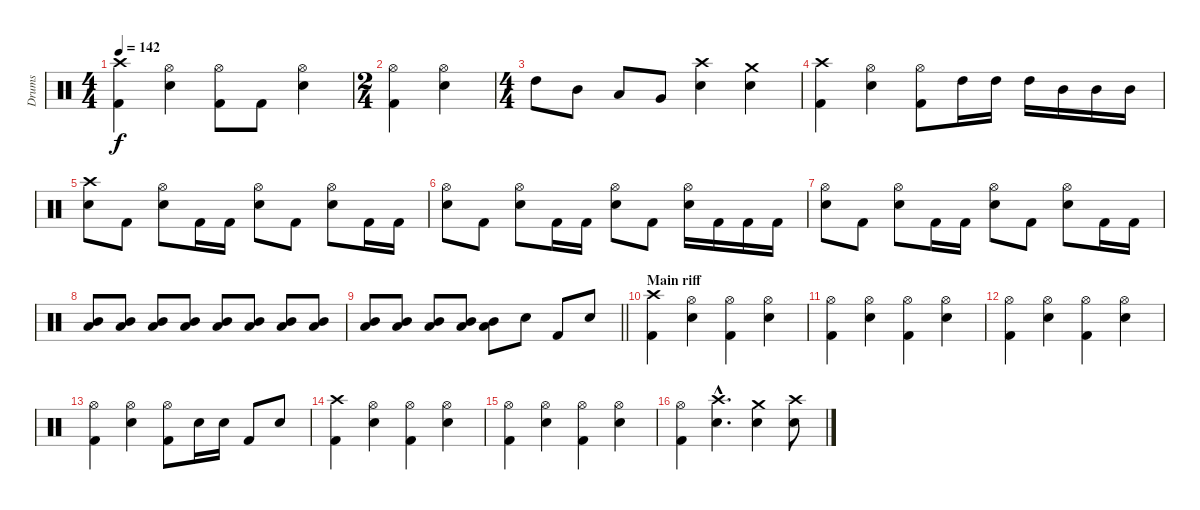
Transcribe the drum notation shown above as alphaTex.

\track ("Drums" "Drums") {instrument percussion}
\staff {score}
\articulation defaults
\ts (4 4)
\tempo 142
\clef neutral
\ks c
("Kick (hit) 2" "Crash high (hit)").4{dy f} ("Snare (hit) 2" "Hi-Hat (open)").4 ("Kick (hit) 2" "Hi-Hat (open)").8 "Kick (hit) 2".8 ("Snare (hit) 2" "Hi-Hat (open)").4 |
\ts (2 4)
("Kick (hit) 2" "Hi-Hat (open)").4 ("Snare (hit) 2" "Hi-Hat (open)").4 |
\ts (4 4)
"High Tom (hit)".8 "Mid Tom (hit)".8 "Low Tom (hit)".8 "Very Low Tom (hit)".8 ("Snare (hit) 2" "Crash high (hit)").4 ("Snare (hit) 2" "Crash medium (hit)").4 |
("Kick (hit) 2" "Crash high (hit)").4 ("Snare (hit) 2" "Hi-Hat (open)").4 ("Kick (hit) 2" "Hi-Hat (open)").8 "High Tom (hit)".16 "High Tom (hit)".16 "High Tom (hit)".16 "Mid Tom (hit)".16 "Mid Tom (hit)".16 "Mid Tom (hit)".16 |
("Snare (hit) 2" "Crash high (hit)").8 "Kick (hit) 2".8 ("Snare (hit) 2" "Hi-Hat (open)").8 "Kick (hit) 2".16 "Kick (hit) 2".16 ("Snare (hit) 2" "Hi-Hat (open)").8 "Kick (hit) 2".8 ("Snare (hit) 2" "Hi-Hat (open)").8 "Kick (hit) 2".16 "Kick (hit) 2".16 |
("Snare (hit) 2" "Hi-Hat (open)").8 "Kick (hit) 2".8 ("Snare (hit) 2" "Hi-Hat (open)").8 "Kick (hit) 2".16 "Kick (hit) 2".16 ("Snare (hit) 2" "Hi-Hat (open)").8 "Kick (hit) 2".8 ("Snare (hit) 2" "Hi-Hat (open)").16 "Kick (hit) 2".16 "Kick (hit) 2".16 "Kick (hit) 2".16 |
("Snare (hit) 2" "Hi-Hat (open)").8 "Kick (hit) 2".8 ("Snare (hit) 2" "Hi-Hat (open)").8 "Kick (hit) 2".16 "Kick (hit) 2".16 ("Snare (hit) 2" "Hi-Hat (open)").8 "Kick (hit) 2".8 ("Snare (hit) 2" "Hi-Hat (open)").8 "Kick (hit) 2".16 "Kick (hit) 2".16 |
("Mid Tom (hit)" "Low Tom (hit)").8 ("Mid Tom (hit)" "Low Tom (hit)").8 ("Mid Tom (hit)" "Low Tom (hit)").8 ("Mid Tom (hit)" "Low Tom (hit)").8 ("Mid Tom (hit)" "Low Tom (hit)").8 ("Mid Tom (hit)" "Low Tom (hit)").8 ("Mid Tom (hit)" "Low Tom (hit)").8 ("Mid Tom (hit)" "Low Tom (hit)").8 |
\barLineRight lightlight
("Mid Tom (hit)" "Low Tom (hit)").8 ("Mid Tom (hit)" "Low Tom (hit)").8 ("Mid Tom (hit)" "Low Tom (hit)").8 ("Mid Tom (hit)" "Low Tom (hit)").8 ("Mid Tom (hit)" "Low Tom (hit)").8 "Snare (hit) 2".8 "Kick (hit) 2".8 "Snare (hit) 2".8 |
\section ("" "Main riff")
("Kick (hit) 2" "Crash high (hit)").4 ("Snare (hit) 2" "Hi-Hat (open)").4 ("Kick (hit) 2" "Hi-Hat (open)").4 ("Snare (hit) 2" "Hi-Hat (open)").4 |
("Kick (hit) 2" "Hi-Hat (open)").4 ("Snare (hit) 2" "Hi-Hat (open)").4 ("Kick (hit) 2" "Hi-Hat (open)").4 ("Snare (hit) 2" "Hi-Hat (open)").4 |
("Kick (hit) 2" "Hi-Hat (open)").4 ("Snare (hit) 2" "Hi-Hat (open)").4 ("Kick (hit) 2" "Hi-Hat (open)").4 ("Snare (hit) 2" "Hi-Hat (open)").4 |
("Kick (hit) 2" "Hi-Hat (open)").4 ("Snare (hit) 2" "Hi-Hat (open)").4 ("Kick (hit) 2" "Hi-Hat (open)").8 "Snare (hit) 2".16 "Snare (hit) 2".16 "Kick (hit) 2".8 "Snare (hit) 2".8 |
("Kick (hit) 2" "Crash high (hit)").4 ("Snare (hit) 2" "Hi-Hat (open)").4 ("Kick (hit) 2" "Hi-Hat (open)").4 ("Snare (hit) 2" "Hi-Hat (open)").4 |
("Kick (hit) 2" "Hi-Hat (open)").4 ("Snare (hit) 2" "Hi-Hat (open)").4 ("Kick (hit) 2" "Hi-Hat (open)").4 ("Snare (hit) 2" "Hi-Hat (open)").4 |
("Kick (hit) 2" "Hi-Hat (open)").4 ("Snare (hit) 2"{hac} "Crash high (hit)"{hac}).4{d} ("Snare (hit) 2" "Crash medium (hit)").4 ("Snare (hit) 2" "Crash high (hit)").8
